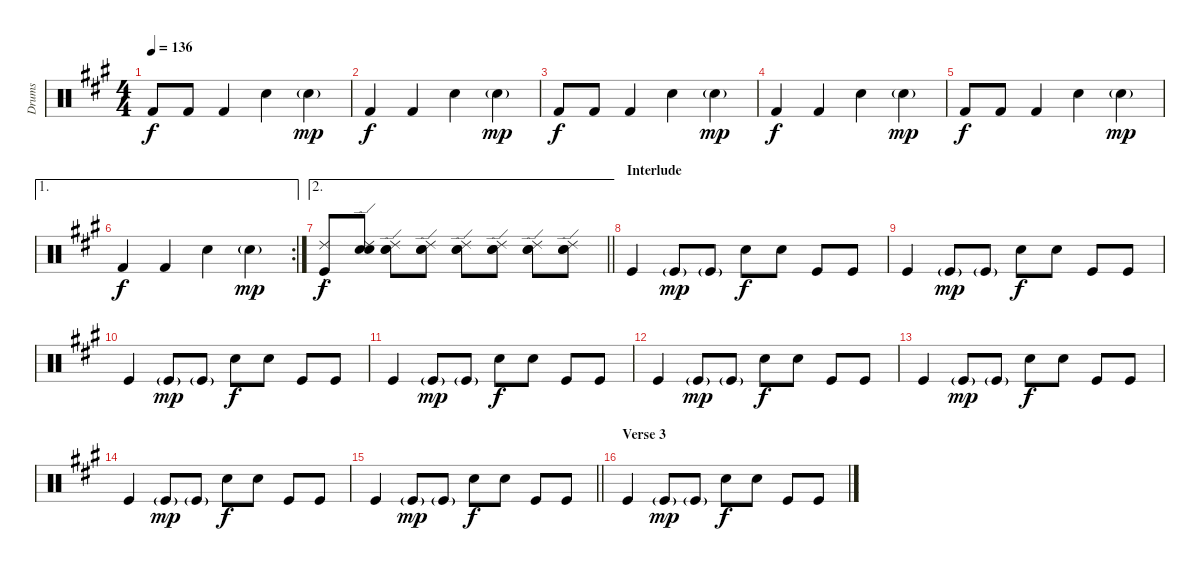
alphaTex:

\track ("Drums" "Drums") {instrument percussion}
\staff {score}
\articulation defaults
\ts (4 4)
\tempo 136
\clef neutral
\ks a "Kick (hit) 2".8{dy f} "Kick (hit) 2".8 "Kick (hit) 2".4 "Snare (hit) 2".4 "Snare (hit) 2"{g}.4{dy mp}
|
"Kick (hit) 2".4{dy f} "Kick (hit) 2".4 "Snare (hit) 2".4 "Snare (hit) 2"{g}.4{dy mp} |
"Kick (hit) 2".8{dy f} "Kick (hit) 2".8 "Kick (hit) 2".4 "Snare (hit) 2".4 "Snare (hit) 2"{g}.4{dy mp} |
"Kick (hit) 2".4{dy f} "Kick (hit) 2".4 "Snare (hit) 2".4 "Snare (hit) 2"{g}.4{dy mp} |
"Kick (hit) 2".8{dy f} "Kick (hit) 2".8 "Kick (hit) 2".4 "Snare (hit) 2".4 "Snare (hit) 2"{g}.4{dy mp} |
\ae 1
\rc 2 "Kick (hit) 2".4{dy f} "Kick (hit) 2".4 "Snare (hit) 2".4 "Snare (hit) 2"{g}.4{dy mp}
|
\ae 2
\barLineRight lightlight
("Ride (choke) 2" "Kick (hit)").8{dy f} ("Ride (edge) 2" "Snare (hit) 2" "Electric Snare (hit)").8 ("Ride (edge) 2" "Snare (hit) 2" "Electric Snare (hit)").8 ("Ride (edge) 2" "Snare (hit) 2" "Electric Snare (hit)").8 ("Ride (edge) 2" "Snare (hit) 2" "Electric Snare (hit)").8 ("Ride (edge) 2" "Snare (hit) 2" "Electric Snare (hit)").8 ("Ride (edge) 2" "Snare (hit) 2" "Electric Snare (hit)").8 ("Ride (edge) 2" "Snare (hit) 2" "Electric Snare (hit)").8 |
\section ("" "Interlude")
"Kick (hit)".4 "Kick (hit)"{g}.8{dy mp} "Kick (hit)"{g}.8 "Electric Snare (hit)".8{dy f} "Electric Snare (hit)".8 "Kick (hit)".8 "Kick (hit)".8 |
"Kick (hit)".4 "Kick (hit)"{g}.8{dy mp} "Kick (hit)"{g}.8 "Electric Snare (hit)".8{dy f} "Electric Snare (hit)".8 "Kick (hit)".8 "Kick (hit)".8 |
"Kick (hit)".4 "Kick (hit)"{g}.8{dy mp} "Kick (hit)"{g}.8 "Electric Snare (hit)".8{dy f} "Electric Snare (hit)".8 "Kick (hit)".8 "Kick (hit)".8 |
"Kick (hit)".4 "Kick (hit)"{g}.8{dy mp} "Kick (hit)"{g}.8 "Electric Snare (hit)".8{dy f} "Electric Snare (hit)".8 "Kick (hit)".8 "Kick (hit)".8 |
"Kick (hit)".4 "Kick (hit)"{g}.8{dy mp} "Kick (hit)"{g}.8 "Electric Snare (hit)".8{dy f} "Electric Snare (hit)".8 "Kick (hit)".8 "Kick (hit)".8 |
"Kick (hit)".4 "Kick (hit)"{g}.8{dy mp} "Kick (hit)"{g}.8 "Electric Snare (hit)".8{dy f} "Electric Snare (hit)".8 "Kick (hit)".8 "Kick (hit)".8 |
"Kick (hit)".4 "Kick (hit)"{g}.8{dy mp} "Kick (hit)"{g}.8 "Electric Snare (hit)".8{dy f} "Electric Snare (hit)".8 "Kick (hit)".8 "Kick (hit)".8 |
\barLineRight lightlight "Kick (hit)".4 "Kick (hit)"{g}.8{dy mp} "Kick (hit)"{g}.8 "Electric Snare (hit)".8{dy f} "Electric Snare (hit)".8 "Kick (hit)".8 "Kick (hit)".8
|
\section ("" "Verse 3")
"Kick (hit)".4 "Kick (hit)"{g}.8{dy mp} "Kick (hit)"{g}.8 "Electric Snare (hit)".8{dy f} "Electric Snare (hit)".8 "Kick (hit)".8 "Kick (hit)".8
